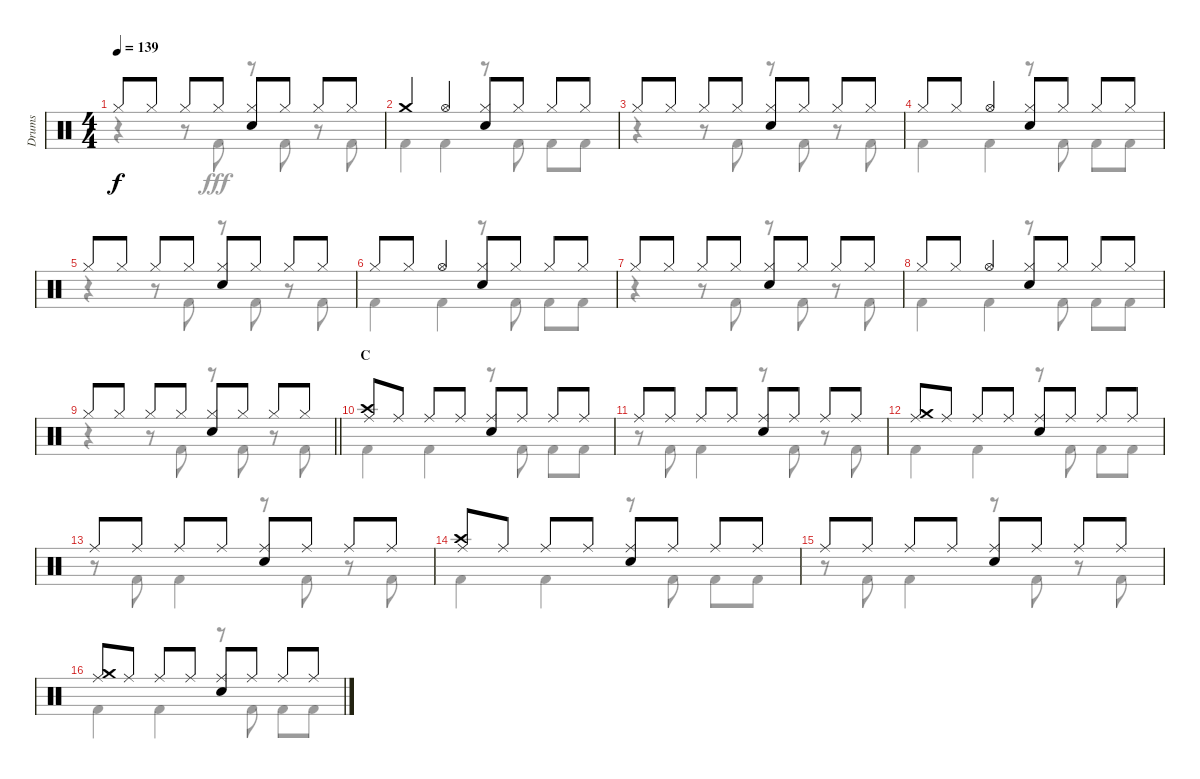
\track ("Drums" "Drums") {instrument percussion}
\staff {score}
\articulation defaults
\voice
\ts (4 4)
\tempo 139
\clef neutral
\ks aminor "Hi-Hat (closed)".8{dy f} "Hi-Hat (closed)".8 "Hi-Hat (closed)".8 "Hi-Hat (closed)".8
("Hi-Hat (closed)" "Snare (hit) 2").8 "Hi-Hat (closed)".8 "Hi-Hat (closed)".8 "Hi-Hat (closed)".8 |
"Crash medium (hit)".4 "Hi-Hat (open)".4 ("Hi-Hat (closed)" "Snare (hit) 2").8 "Hi-Hat (closed)".8 "Hi-Hat (closed)".8 "Hi-Hat (closed)".8 |
"Hi-Hat (closed)".8 "Hi-Hat (closed)".8 "Hi-Hat (closed)".8 "Hi-Hat (closed)".8 ("Hi-Hat (closed)" "Snare (hit) 2").8 "Hi-Hat (closed)".8 "Hi-Hat (closed)".8 "Hi-Hat (closed)".8 |
"Hi-Hat (closed)".8 "Hi-Hat (closed)".8 "Hi-Hat (open)".4 ("Hi-Hat (closed)" "Snare (hit) 2").8 "Hi-Hat (closed)".8 "Hi-Hat (closed)".8 "Hi-Hat (closed)".8 |
"Hi-Hat (closed)".8 "Hi-Hat (closed)".8 "Hi-Hat (closed)".8 "Hi-Hat (closed)".8 ("Hi-Hat (closed)" "Snare (hit) 2").8 "Hi-Hat (closed)".8 "Hi-Hat (closed)".8 "Hi-Hat (closed)".8 |
"Hi-Hat (closed)".8 "Hi-Hat (closed)".8 "Hi-Hat (open)".4 ("Hi-Hat (closed)" "Snare (hit) 2").8 "Hi-Hat (closed)".8 "Hi-Hat (closed)".8 "Hi-Hat (closed)".8 |
"Hi-Hat (closed)".8 "Hi-Hat (closed)".8 "Hi-Hat (closed)".8 "Hi-Hat (closed)".8 ("Hi-Hat (closed)" "Snare (hit) 2").8 "Hi-Hat (closed)".8 "Hi-Hat (closed)".8 "Hi-Hat (closed)".8 |
"Hi-Hat (closed)".8 "Hi-Hat (closed)".8 "Hi-Hat (open)".4 ("Hi-Hat (closed)" "Snare (hit) 2").8 "Hi-Hat (closed)".8 "Hi-Hat (closed)".8 "Hi-Hat (closed)".8 |
\barLineRight lightlight "Hi-Hat (closed)".8 "Hi-Hat (closed)".8 "Hi-Hat (closed)".8 "Hi-Hat (closed)".8
("Hi-Hat (closed)" "Snare (hit) 2").8 "Hi-Hat (closed)".8 "Hi-Hat (closed)".8 "Hi-Hat (closed)".8 |
\section ("" "C")
("Crash high (hit)" "Ride (middle)").8 "Ride (middle)".8 "Ride (middle)".8 "Ride (middle)".8 ("Ride (middle)" "Snare (hit) 2").8 "Ride (middle)".8 "Ride (middle)".8 "Ride (middle)".8 |
"Ride (middle)".8 "Ride (middle)".8 "Ride (middle)".8 "Ride (middle)".8 ("Ride (middle)" "Snare (hit) 2").8 "Ride (middle)".8 "Ride (middle)".8 "Ride (middle)".8 |
("Crash medium (hit)" "Ride (middle)").8 "Ride (middle)".8 "Ride (middle)".8 "Ride (middle)".8 ("Ride (middle)" "Snare (hit) 2").8 "Ride (middle)".8 "Ride (middle)".8 "Ride (middle)".8 |
"Ride (middle)".8 "Ride (middle)".8 "Ride (middle)".8 "Ride (middle)".8 ("Ride (middle)" "Snare (hit) 2").8 "Ride (middle)".8 "Ride (middle)".8 "Ride (middle)".8 |
("Crash high (hit)" "Ride (middle)").8 "Ride (middle)".8 "Ride (middle)".8 "Ride (middle)".8 ("Ride (middle)" "Snare (hit) 2").8 "Ride (middle)".8 "Ride (middle)".8 "Ride (middle)".8 |
"Ride (middle)".8 "Ride (middle)".8 "Ride (middle)".8 "Ride (middle)".8 ("Ride (middle)" "Snare (hit) 2").8 "Ride (middle)".8 "Ride (middle)".8 "Ride (middle)".8 |
("Crash medium (hit)" "Ride (middle)").8 "Ride (middle)".8 "Ride (middle)".8 "Ride (middle)".8 ("Ride (middle)" "Snare (hit) 2").8 "Ride (middle)".8 "Ride (middle)".8 "Ride (middle)".8
\voice
\clef neutral
\ottava regular
\simile none
\ks aminor
r.4{dy fff} r.8 "Kick (hit) 2".8 r.8 "Kick (hit) 2".8 r.8 "Kick (hit) 2".8 |
"Kick (hit) 2".4 "Kick (hit) 2".4 r.8 "Kick (hit) 2".8 "Kick (hit) 2".8 "Kick (hit) 2".8 |
r.4 r.8 "Kick (hit) 2".8 r.8 "Kick (hit) 2".8 r.8 "Kick (hit) 2".8 |
"Kick (hit) 2".4 "Kick (hit) 2".4 r.8 "Kick (hit) 2".8 "Kick (hit) 2".8 "Kick (hit) 2".8 |
r.4 r.8 "Kick (hit) 2".8 r.8 "Kick (hit) 2".8 r.8 "Kick (hit) 2".8 |
"Kick (hit) 2".4 "Kick (hit) 2".4 r.8 "Kick (hit) 2".8 "Kick (hit) 2".8 "Kick (hit) 2".8 |
r.4 r.8 "Kick (hit) 2".8 r.8 "Kick (hit) 2".8 r.8 "Kick (hit) 2".8 |
"Kick (hit) 2".4 "Kick (hit) 2".4 r.8 "Kick (hit) 2".8 "Kick (hit) 2".8 "Kick (hit) 2".8 |
\barLineRight lightlight
r.4 r.8 "Kick (hit) 2".8 r.8 "Kick (hit) 2".8 r.8 "Kick (hit) 2".8 |
"Kick (hit) 2".4 "Kick (hit) 2".4 r.8 "Kick (hit) 2".8 "Kick (hit) 2".8 "Kick (hit) 2".8 |
r.8 "Kick (hit) 2".8 "Kick (hit) 2".4 r.8 "Kick (hit) 2".8 r.8 "Kick (hit) 2".8 |
"Kick (hit) 2".4 "Kick (hit) 2".4 r.8 "Kick (hit) 2".8 "Kick (hit) 2".8 "Kick (hit) 2".8 |
r.8 "Kick (hit) 2".8 "Kick (hit) 2".4 r.8 "Kick (hit) 2".8 r.8 "Kick (hit) 2".8 |
"Kick (hit) 2".4 "Kick (hit) 2".4 r.8 "Kick (hit) 2".8 "Kick (hit) 2".8 "Kick (hit) 2".8 |
r.8 "Kick (hit) 2".8 "Kick (hit) 2".4 r.8 "Kick (hit) 2".8 r.8 "Kick (hit) 2".8 |
"Kick (hit) 2".4 "Kick (hit) 2".4 r.8 "Kick (hit) 2".8 "Kick (hit) 2".8 "Kick (hit) 2".8
